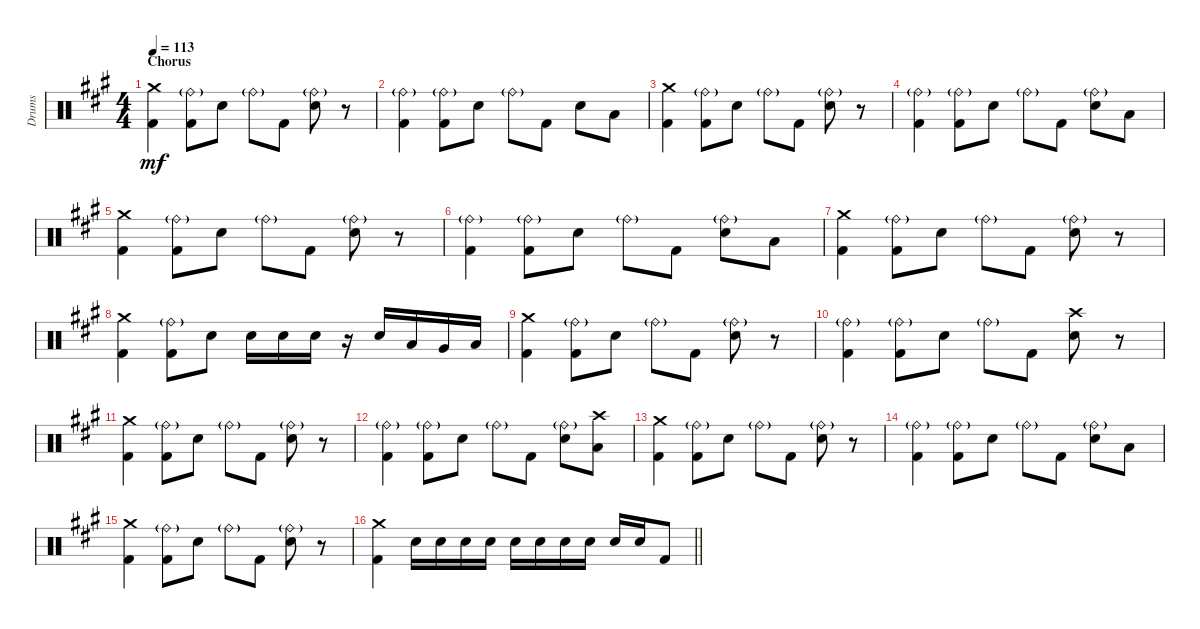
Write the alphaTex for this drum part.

\track ("Drums" "Drums") {instrument percussion}
\staff {score}
\articulation defaults
\ts (4 4)
\section ("" "Chorus")
\tempo 113
\clef neutral
\ks f#minor
("Crash medium (hit)" "Kick (hit) 2").4{dy mf} ("Ride (bell)"{g} "Kick (hit) 2").8 "Snare (hit) 2".8 "Ride (bell)"{g}.8 "Kick (hit) 2".8 ("Ride (bell)"{g} "Snare (hit) 2").8 r.8 |
("Ride (bell)"{g} "Kick (hit) 2").4 ("Ride (bell)"{g} "Kick (hit) 2").8 "Snare (hit) 2".8 "Ride (bell)"{g}.8 "Kick (hit) 2".8 "Snare (hit) 2".8 "Low Floor Tom (hit)".8 |
("Crash medium (hit)" "Kick (hit) 2").4 ("Ride (bell)"{g} "Kick (hit) 2").8 "Snare (hit) 2".8 "Ride (bell)"{g}.8 "Kick (hit) 2".8 ("Ride (bell)"{g} "Snare (hit) 2").8 r.8 |
("Ride (bell)"{g} "Kick (hit) 2").4 ("Ride (bell)"{g} "Kick (hit) 2").8 "Snare (hit) 2".8 "Ride (bell)"{g}.8 "Kick (hit) 2".8 ("Ride (bell)"{g} "Snare (hit) 2").8 "Low Floor Tom (hit)".8 |
("Crash medium (hit)" "Kick (hit) 2").4 ("Ride (bell)"{g} "Kick (hit) 2").8 "Snare (hit) 2".8 "Ride (bell)"{g}.8 "Kick (hit) 2".8 ("Ride (bell)"{g} "Snare (hit) 2").8 r.8 |
("Ride (bell)"{g} "Kick (hit) 2").4 ("Ride (bell)"{g} "Kick (hit) 2").8 "Snare (hit) 2".8 "Ride (bell)"{g}.8 "Kick (hit) 2".8 ("Ride (bell)"{g} "Snare (hit) 2").8 "Low Floor Tom (hit)".8 |
("Crash medium (hit)" "Kick (hit) 2").4 ("Ride (bell)"{g} "Kick (hit) 2").8 "Snare (hit) 2".8 "Ride (bell)"{g}.8 "Kick (hit) 2".8 ("Ride (bell)"{g} "Snare (hit) 2").8 r.8 |
("Crash medium (hit)" "Kick (hit) 2").4 ("Ride (bell)"{g} "Kick (hit) 2").8 "Snare (hit) 2".8 "Snare (hit) 2".16 "Snare (hit) 2".16 "Snare (hit) 2".16 r.16 "Snare (hit) 2".16 "Low Tom (hit)".16 "Very Low Tom (hit)".16 "Low Floor Tom (hit)".16 |
("Crash medium (hit)" "Kick (hit) 2").4 ("Ride (bell)"{g} "Kick (hit) 2").8 "Snare (hit) 2".8 "Ride (bell)"{g}.8 "Kick (hit) 2".8 ("Ride (bell)"{g} "Snare (hit) 2").8 r.8 |
("Ride (bell)"{g} "Kick (hit) 2").4 ("Ride (bell)"{g} "Kick (hit) 2").8 "Snare (hit) 2".8 "Ride (bell)"{g}.8 "Kick (hit) 2".8 ("Crash high (hit)" "Snare (hit) 2").8 r.8 |
("Crash medium (hit)" "Kick (hit) 2").4 ("Ride (bell)"{g} "Kick (hit) 2").8 "Snare (hit) 2".8 "Ride (bell)"{g}.8 "Kick (hit) 2".8 ("Ride (bell)"{g} "Snare (hit) 2").8 r.8 |
("Ride (bell)"{g} "Kick (hit) 2").4 ("Ride (bell)"{g} "Kick (hit) 2").8 "Snare (hit) 2".8 "Ride (bell)"{g}.8 "Kick (hit) 2".8 ("Ride (bell)"{g} "Snare (hit) 2").8 ("Crash high (hit)" "Low Floor Tom (hit)").8 |
("Crash medium (hit)" "Kick (hit) 2").4 ("Ride (bell)"{g} "Kick (hit) 2").8 "Snare (hit) 2".8 "Ride (bell)"{g}.8 "Kick (hit) 2".8 ("Ride (bell)"{g} "Snare (hit) 2").8 r.8 |
("Ride (bell)"{g} "Kick (hit) 2").4 ("Ride (bell)"{g} "Kick (hit) 2").8 "Snare (hit) 2".8 "Ride (bell)"{g}.8 "Kick (hit) 2".8 ("Ride (bell)"{g} "Snare (hit) 2").8 "Low Floor Tom (hit)".8 |
("Crash medium (hit)" "Kick (hit) 2").4 ("Ride (bell)"{g} "Kick (hit) 2").8 "Snare (hit) 2".8 "Ride (bell)"{g}.8 "Kick (hit) 2".8 ("Ride (bell)"{g} "Snare (hit) 2").8 r.8 |
\barLineRight lightlight
("Crash medium (hit)" "Kick (hit) 2").4 "Electric Snare (hit)".16 "Electric Snare (hit)".16 "Electric Snare (hit)".16 "Electric Snare (hit)".16 "Electric Snare (hit)".16 "Electric Snare (hit)".16 "Electric Snare (hit)".16 "Electric Snare (hit)".16 "Electric Snare (hit)".16 "Electric Snare (hit)".16 "Kick (hit) 2".8
